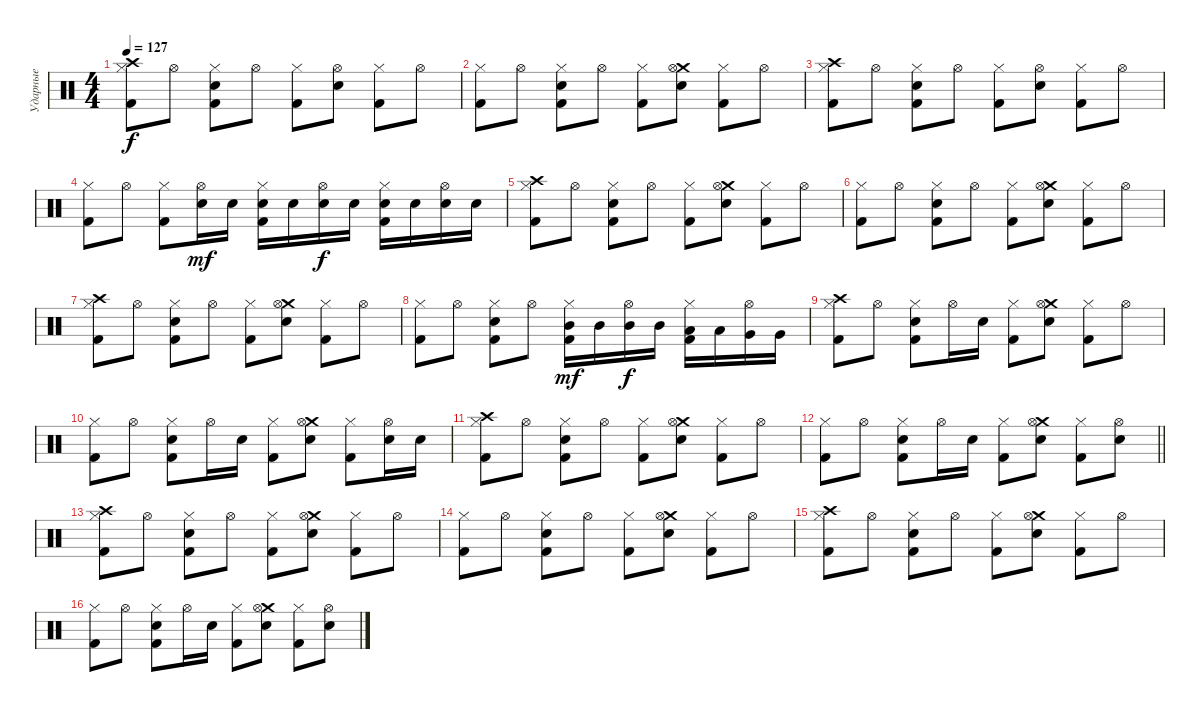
\track ("Ударные" "Ударные") {instrument percussion}
\staff {score}
\articulation defaults
\ts (4 4)
\tempo 127
\clef neutral
\ks c
("Crash high (hit)" "Hi-Hat (closed)" "Kick (hit) 2").8{dy f} "Hi-Hat (open)".8 ("Hi-Hat (closed)" "Electric Snare (hit)" "Kick (hit) 2").8 "Hi-Hat (open)".8 ("Hi-Hat (closed)" "Kick (hit) 2").8 ("Hi-Hat (open)" "Electric Snare (hit)").8 ("Hi-Hat (closed)" "Kick (hit) 2").8 "Hi-Hat (open)".8 |
("Hi-Hat (closed)" "Kick (hit) 2").8 "Hi-Hat (open)".8 ("Hi-Hat (closed)" "Electric Snare (hit)" "Kick (hit) 2").8 "Hi-Hat (open)".8 ("Hi-Hat (closed)" "Kick (hit) 2").8 ("Crash medium (hit)" "Hi-Hat (open)" "Electric Snare (hit)").8 ("Hi-Hat (closed)" "Kick (hit) 2").8 "Hi-Hat (open)".8 |
("Crash high (hit)" "Hi-Hat (closed)" "Kick (hit) 2").8 "Hi-Hat (open)".8 ("Hi-Hat (closed)" "Electric Snare (hit)" "Kick (hit) 2").8 "Hi-Hat (open)".8 ("Hi-Hat (closed)" "Kick (hit) 2").8 ("Hi-Hat (open)" "Electric Snare (hit)").8 ("Hi-Hat (closed)" "Kick (hit) 2").8 "Hi-Hat (open)".8 |
("Hi-Hat (closed)" "Kick (hit) 2").8 "Hi-Hat (open)".8 ("Hi-Hat (closed)" "Kick (hit) 2").8 ("Hi-Hat (open)" "Electric Snare (hit)").16{dy mf} "Electric Snare (hit)".16 ("Hi-Hat (closed)" "Electric Snare (hit)" "Kick (hit) 2").16 "Electric Snare (hit)".16 ("Hi-Hat (open)" "Electric Snare (hit)").16{dy f} "Electric Snare (hit)".16 ("Hi-Hat (closed)" "Electric Snare (hit)" "Kick (hit) 2").16 "Electric Snare (hit)".16 ("Hi-Hat (open)" "Electric Snare (hit)").16 "Electric Snare (hit)".16 |
("Crash high (hit)" "Hi-Hat (closed)" "Kick (hit) 2").8 "Hi-Hat (open)".8 ("Hi-Hat (closed)" "Electric Snare (hit)" "Kick (hit) 2").8 "Hi-Hat (open)".8 ("Hi-Hat (closed)" "Kick (hit) 2").8 ("Crash medium (hit)" "Hi-Hat (open)" "Electric Snare (hit)").8 ("Hi-Hat (closed)" "Kick (hit) 2").8 "Hi-Hat (open)".8 |
("Hi-Hat (closed)" "Kick (hit) 2").8 "Hi-Hat (open)".8 ("Hi-Hat (closed)" "Electric Snare (hit)" "Kick (hit) 2").8 "Hi-Hat (open)".8 ("Hi-Hat (closed)" "Kick (hit) 2").8 ("Crash medium (hit)" "Hi-Hat (open)" "Electric Snare (hit)").8 ("Hi-Hat (closed)" "Kick (hit) 2").8 "Hi-Hat (open)".8 |
("Crash high (hit)" "Hi-Hat (closed)" "Kick (hit) 2").8 "Hi-Hat (open)".8 ("Hi-Hat (closed)" "Electric Snare (hit)" "Kick (hit) 2").8 "Hi-Hat (open)".8 ("Hi-Hat (closed)" "Kick (hit) 2").8 ("Crash medium (hit)" "Hi-Hat (open)" "Electric Snare (hit)").8 ("Hi-Hat (closed)" "Kick (hit) 2").8 "Hi-Hat (open)".8 |
("Hi-Hat (closed)" "Kick (hit) 2").8 "Hi-Hat (open)".8 ("Hi-Hat (closed)" "Electric Snare (hit)" "Kick (hit) 2").8 "Hi-Hat (open)".8 ("Hi-Hat (closed)" "Mid Tom (hit)" "Kick (hit) 2").16{dy mf} "Mid Tom (hit)".16 ("Hi-Hat (open)" "Mid Tom (hit)").16{dy f} "Mid Tom (hit)".16 ("Hi-Hat (closed)" "Low Tom (hit)" "Kick (hit) 2").16 "Low Tom (hit)".16 ("Hi-Hat (open)" "Very Low Tom (hit)").16 "Very Low Tom (hit)".16 |
("Crash high (hit)" "Hi-Hat (closed)" "Kick (hit) 2").8 "Hi-Hat (open)".8 ("Hi-Hat (closed)" "Electric Snare (hit)" "Kick (hit) 2").8 "Hi-Hat (open)".16 "Electric Snare (hit)".16 ("Hi-Hat (closed)" "Kick (hit) 2").8 ("Crash medium (hit)" "Hi-Hat (open)" "Electric Snare (hit)").8 ("Hi-Hat (closed)" "Kick (hit) 2").8 "Hi-Hat (open)".8 |
("Hi-Hat (closed)" "Kick (hit) 2").8 "Hi-Hat (open)".8 ("Hi-Hat (closed)" "Electric Snare (hit)" "Kick (hit) 2").8 "Hi-Hat (open)".16 "Electric Snare (hit)".16 ("Hi-Hat (closed)" "Kick (hit) 2").8 ("Crash medium (hit)" "Hi-Hat (open)" "Electric Snare (hit)").8 ("Hi-Hat (closed)" "Kick (hit) 2").8 ("Hi-Hat (open)" "Electric Snare (hit)").16 "Electric Snare (hit)".16 |
("Crash high (hit)" "Hi-Hat (closed)" "Kick (hit) 2").8 "Hi-Hat (open)".8 ("Hi-Hat (closed)" "Electric Snare (hit)" "Kick (hit) 2").8 "Hi-Hat (open)".8 ("Hi-Hat (closed)" "Kick (hit) 2").8 ("Crash medium (hit)" "Hi-Hat (open)" "Electric Snare (hit)").8 ("Hi-Hat (closed)" "Kick (hit) 2").8 "Hi-Hat (open)".8 |
\barLineRight lightlight
("Hi-Hat (closed)" "Kick (hit) 2").8 "Hi-Hat (open)".8 ("Hi-Hat (closed)" "Electric Snare (hit)" "Kick (hit) 2").8 "Hi-Hat (open)".16 "Electric Snare (hit)".16 ("Hi-Hat (closed)" "Kick (hit) 2").8 ("Crash medium (hit)" "Hi-Hat (open)" "Electric Snare (hit)").8 ("Hi-Hat (closed)" "Kick (hit) 2").8 ("Hi-Hat (open)" "Electric Snare (hit)").8 |
("Crash high (hit)" "Hi-Hat (closed)" "Kick (hit) 2").8 "Hi-Hat (open)".8 ("Hi-Hat (closed)" "Electric Snare (hit)" "Kick (hit) 2").8 "Hi-Hat (open)".8 ("Hi-Hat (closed)" "Kick (hit) 2").8 ("Crash medium (hit)" "Hi-Hat (open)" "Electric Snare (hit)").8 ("Hi-Hat (closed)" "Kick (hit) 2").8 "Hi-Hat (open)".8 |
("Hi-Hat (closed)" "Kick (hit) 2").8 "Hi-Hat (open)".8 ("Hi-Hat (closed)" "Electric Snare (hit)" "Kick (hit) 2").8 "Hi-Hat (open)".8 ("Hi-Hat (closed)" "Kick (hit) 2").8 ("Crash medium (hit)" "Hi-Hat (open)" "Electric Snare (hit)").8 ("Hi-Hat (closed)" "Kick (hit) 2").8 "Hi-Hat (open)".8 |
("Crash high (hit)" "Hi-Hat (closed)" "Kick (hit) 2").8 "Hi-Hat (open)".8 ("Hi-Hat (closed)" "Electric Snare (hit)" "Kick (hit) 2").8 "Hi-Hat (open)".8 ("Hi-Hat (closed)" "Kick (hit) 2").8 ("Crash medium (hit)" "Hi-Hat (open)" "Electric Snare (hit)").8 ("Hi-Hat (closed)" "Kick (hit) 2").8 "Hi-Hat (open)".8 |
("Hi-Hat (closed)" "Kick (hit) 2").8 "Hi-Hat (open)".8 ("Hi-Hat (closed)" "Electric Snare (hit)" "Kick (hit) 2").8 "Hi-Hat (open)".16 "Electric Snare (hit)".16 ("Hi-Hat (closed)" "Kick (hit) 2").8 ("Crash medium (hit)" "Hi-Hat (open)" "Electric Snare (hit)").8 ("Hi-Hat (closed)" "Kick (hit) 2").8 ("Hi-Hat (open)" "Electric Snare (hit)").8
